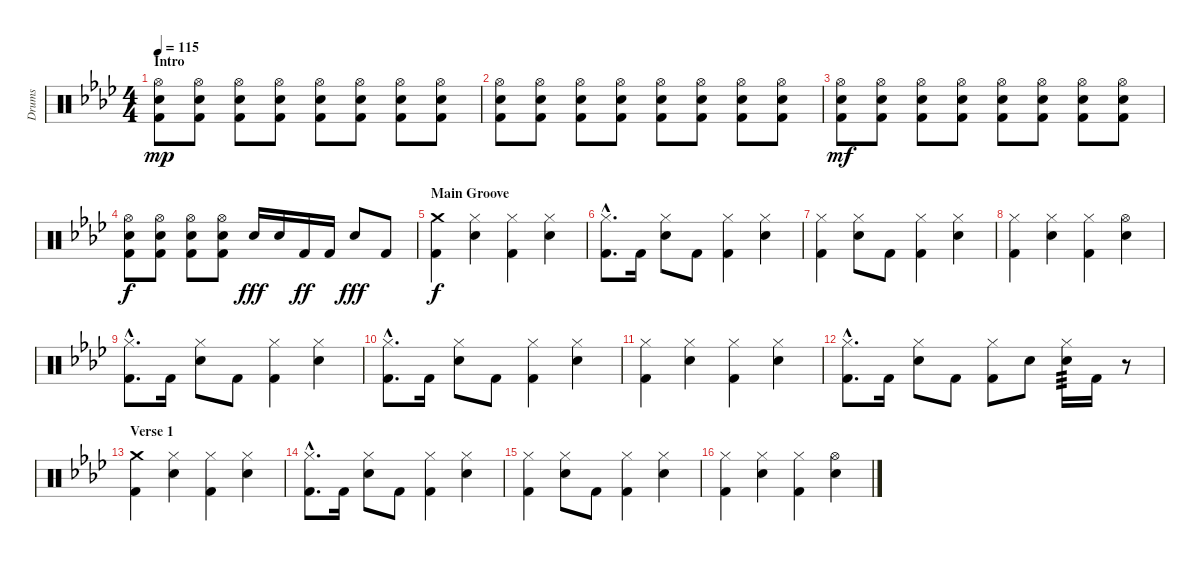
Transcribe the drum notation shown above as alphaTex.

\track ("Drums" "Drums") {instrument percussion}
\staff {score}
\articulation defaults
\ts (4 4)
\section ("" "Intro")
\tempo 115
\clef neutral
\ks ab
("Hi-Hat (open)" "Snare (hit) 2" "Kick (hit) 2").8{dy mp} ("Hi-Hat (open)" "Snare (hit) 2" "Kick (hit) 2").8 ("Hi-Hat (open)" "Snare (hit) 2" "Kick (hit) 2").8 ("Hi-Hat (open)" "Snare (hit) 2" "Kick (hit) 2").8 ("Hi-Hat (open)" "Snare (hit) 2" "Kick (hit) 2").8 ("Hi-Hat (open)" "Snare (hit) 2" "Kick (hit) 2").8 ("Hi-Hat (open)" "Snare (hit) 2" "Kick (hit) 2").8 ("Hi-Hat (open)" "Snare (hit) 2" "Kick (hit) 2").8 |
("Hi-Hat (open)" "Snare (hit) 2" "Kick (hit) 2").8 ("Hi-Hat (open)" "Snare (hit) 2" "Kick (hit) 2").8 ("Hi-Hat (open)" "Snare (hit) 2" "Kick (hit) 2").8 ("Hi-Hat (open)" "Snare (hit) 2" "Kick (hit) 2").8 ("Hi-Hat (open)" "Snare (hit) 2" "Kick (hit) 2").8 ("Hi-Hat (open)" "Snare (hit) 2" "Kick (hit) 2").8 ("Hi-Hat (open)" "Snare (hit) 2" "Kick (hit) 2").8 ("Hi-Hat (open)" "Snare (hit) 2" "Kick (hit) 2").8 |
("Hi-Hat (open)" "Snare (hit) 2" "Kick (hit) 2").8{dy mf} ("Hi-Hat (open)" "Snare (hit) 2" "Kick (hit) 2").8 ("Hi-Hat (open)" "Snare (hit) 2" "Kick (hit) 2").8 ("Hi-Hat (open)" "Snare (hit) 2" "Kick (hit) 2").8 ("Hi-Hat (open)" "Snare (hit) 2" "Kick (hit) 2").8 ("Hi-Hat (open)" "Snare (hit) 2" "Kick (hit) 2").8 ("Hi-Hat (open)" "Snare (hit) 2" "Kick (hit) 2").8 ("Hi-Hat (open)" "Snare (hit) 2" "Kick (hit) 2").8 |
("Hi-Hat (open)" "Snare (hit) 2" "Kick (hit) 2").8{dy f} ("Hi-Hat (open)" "Snare (hit) 2" "Kick (hit) 2").8 ("Hi-Hat (open)" "Snare (hit) 2" "Kick (hit) 2").8 ("Hi-Hat (open)" "Snare (hit) 2" "Kick (hit) 2").8 "Snare (hit) 2".16{dy fff} "Snare (hit) 2".16 "Kick (hit) 2".16{dy ff} "Kick (hit) 2".16 "Snare (hit) 2".8{dy fff} "Kick (hit) 2".8 |
\section ("" "Main Groove")
("Crash medium (hit)" "Kick (hit) 2").4{dy f} ("Hi-Hat (closed)" "Snare (hit) 2").4 ("Hi-Hat (closed)" "Kick (hit) 2").4 ("Hi-Hat (closed)" "Snare (hit) 2").4 |
("Hi-Hat (closed)"{hac} "Kick (hit) 2"{hac}).8{d} "Kick (hit) 2".16 ("Hi-Hat (closed)" "Snare (hit) 2").8 "Kick (hit) 2".8 ("Hi-Hat (closed)" "Kick (hit) 2").4 ("Hi-Hat (closed)" "Snare (hit) 2").4 |
("Hi-Hat (closed)" "Kick (hit) 2").4 ("Hi-Hat (closed)" "Snare (hit) 2").8 "Kick (hit) 2".8 ("Hi-Hat (closed)" "Kick (hit) 2").4 ("Hi-Hat (closed)" "Snare (hit) 2").4 |
("Hi-Hat (closed)" "Kick (hit) 2").4 ("Hi-Hat (closed)" "Snare (hit) 2").4 ("Hi-Hat (closed)" "Kick (hit) 2").4 ("Hi-Hat (open)" "Snare (hit) 2").4 |
("Hi-Hat (closed)"{hac} "Kick (hit) 2"{hac}).8{d} "Kick (hit) 2".16 ("Hi-Hat (closed)" "Snare (hit) 2").8 "Kick (hit) 2".8 ("Hi-Hat (closed)" "Kick (hit) 2").4 ("Hi-Hat (closed)" "Snare (hit) 2").4 |
("Hi-Hat (closed)"{hac} "Kick (hit) 2"{hac}).8{d} "Kick (hit) 2".16 ("Hi-Hat (closed)" "Snare (hit) 2").8 "Kick (hit) 2".8 ("Hi-Hat (closed)" "Kick (hit) 2").4 ("Hi-Hat (closed)" "Snare (hit) 2").4 |
("Hi-Hat (closed)" "Kick (hit) 2").4 ("Hi-Hat (closed)" "Snare (hit) 2").4 ("Hi-Hat (closed)" "Kick (hit) 2").4 ("Hi-Hat (closed)" "Snare (hit) 2").4 |
("Hi-Hat (closed)"{hac} "Kick (hit) 2"{hac}).8{d} "Kick (hit) 2".16 ("Hi-Hat (closed)" "Snare (hit) 2").8 "Kick (hit) 2".8 ("Hi-Hat (closed)" "Kick (hit) 2").8 "Snare (hit) 2".8 ("Hi-Hat (closed)" "Snare (hit) 2").16{tp 3} "Kick (hit) 2".16 r.8 |
\section ("" "Verse 1")
("Crash medium (hit)" "Kick (hit) 2").4 ("Hi-Hat (closed)" "Snare (hit) 2").4 ("Hi-Hat (closed)" "Kick (hit) 2").4 ("Hi-Hat (closed)" "Snare (hit) 2").4 |
("Hi-Hat (closed)"{hac} "Kick (hit) 2"{hac}).8{d} "Kick (hit) 2".16 ("Hi-Hat (closed)" "Snare (hit) 2").8 "Kick (hit) 2".8 ("Hi-Hat (closed)" "Kick (hit) 2").4 ("Hi-Hat (closed)" "Snare (hit) 2").4 |
("Hi-Hat (closed)" "Kick (hit) 2").4 ("Hi-Hat (closed)" "Snare (hit) 2").8 "Kick (hit) 2".8 ("Hi-Hat (closed)" "Kick (hit) 2").4 ("Hi-Hat (closed)" "Snare (hit) 2").4 |
("Hi-Hat (closed)" "Kick (hit) 2").4 ("Hi-Hat (closed)" "Snare (hit) 2").4 ("Hi-Hat (closed)" "Kick (hit) 2").4 ("Hi-Hat (open)" "Snare (hit) 2").4
